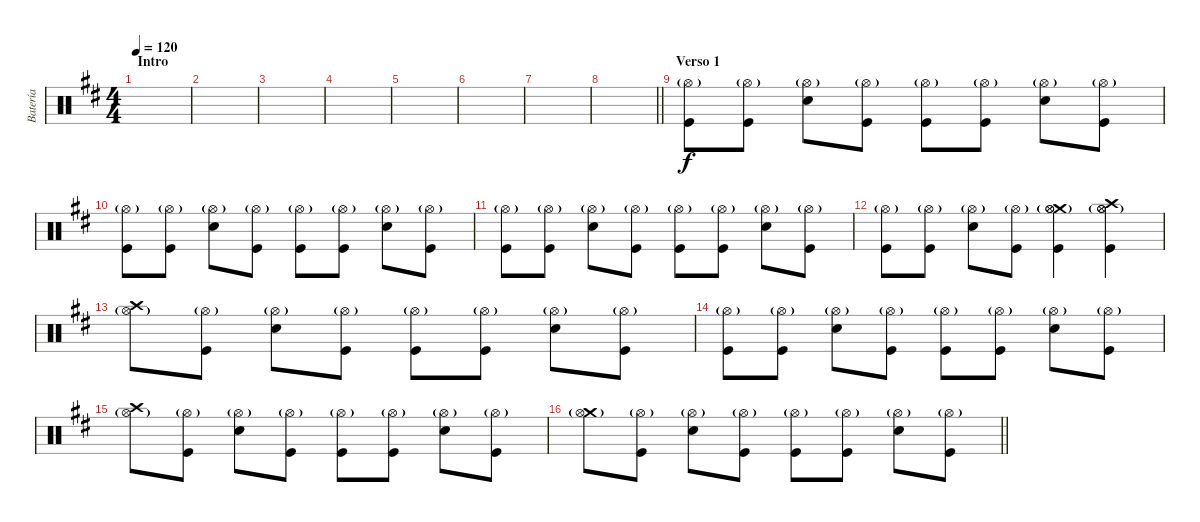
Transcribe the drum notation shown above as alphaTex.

\track ("Batería" "Batería") {instrument percussion}
\staff {score}
\articulation defaults
\ts (4 4)
\section ("" "Intro")
\tempo 120
\clef neutral
\ks d
|
|
|
|
|
|
|
\barLineRight lightlight
|
\section ("" "Verso 1")
("Kick (hit)" "Hi-Hat (open)"{g}).8 ("Kick (hit)" "Hi-Hat (open)"{g}).8 ("Electric Snare (hit)" "Hi-Hat (open)"{g}).8 ("Kick (hit)" "Hi-Hat (open)"{g}).8 ("Kick (hit)" "Hi-Hat (open)"{g}).8 ("Kick (hit)" "Hi-Hat (open)"{g}).8 ("Electric Snare (hit)" "Hi-Hat (open)"{g}).8 ("Kick (hit)" "Hi-Hat (open)"{g}).8 |
("Kick (hit)" "Hi-Hat (open)"{g}).8 ("Kick (hit)" "Hi-Hat (open)"{g}).8 ("Electric Snare (hit)" "Hi-Hat (open)"{g}).8 ("Kick (hit)" "Hi-Hat (open)"{g}).8 ("Kick (hit)" "Hi-Hat (open)"{g}).8 ("Kick (hit)" "Hi-Hat (open)"{g}).8 ("Electric Snare (hit)" "Hi-Hat (open)"{g}).8 ("Kick (hit)" "Hi-Hat (open)"{g}).8 |
("Kick (hit)" "Hi-Hat (open)"{g}).8 ("Kick (hit)" "Hi-Hat (open)"{g}).8 ("Electric Snare (hit)" "Hi-Hat (open)"{g}).8 ("Kick (hit)" "Hi-Hat (open)"{g}).8 ("Kick (hit)" "Hi-Hat (open)"{g}).8 ("Kick (hit)" "Hi-Hat (open)"{g}).8 ("Electric Snare (hit)" "Hi-Hat (open)"{g}).8 ("Kick (hit)" "Hi-Hat (open)"{g}).8 |
("Kick (hit)" "Hi-Hat (open)"{g}).8 ("Kick (hit)" "Hi-Hat (open)"{g}).8 ("Electric Snare (hit)" "Hi-Hat (open)"{g}).8 ("Kick (hit)" "Hi-Hat (open)"{g}).8 ("Crash medium (hit)" "Hi-Hat (open)" "Kick (hit)" "Hi-Hat (open)"{g}).4 ("Crash high (hit)" "Hi-Hat (open)" "Kick (hit)" "Hi-Hat (open)"{g}).4 |
("Crash high (hit)" "Hi-Hat (open)"{g}).8 ("Kick (hit)" "Hi-Hat (open)"{g}).8 ("Electric Snare (hit)" "Hi-Hat (open)"{g}).8 ("Kick (hit)" "Hi-Hat (open)"{g}).8 ("Kick (hit)" "Hi-Hat (open)"{g}).8 ("Kick (hit)" "Hi-Hat (open)"{g}).8 ("Electric Snare (hit)" "Hi-Hat (open)"{g}).8 ("Kick (hit)" "Hi-Hat (open)"{g}).8 |
("Kick (hit)" "Hi-Hat (open)"{g}).8 ("Kick (hit)" "Hi-Hat (open)"{g}).8 ("Electric Snare (hit)" "Hi-Hat (open)"{g}).8 ("Kick (hit)" "Hi-Hat (open)"{g}).8 ("Kick (hit)" "Hi-Hat (open)"{g}).8 ("Kick (hit)" "Hi-Hat (open)"{g}).8 ("Electric Snare (hit)" "Hi-Hat (open)"{g}).8 ("Kick (hit)" "Hi-Hat (open)"{g}).8 |
("Crash high (hit)" "Hi-Hat (open)"{g}).8 ("Kick (hit)" "Hi-Hat (open)"{g}).8 ("Electric Snare (hit)" "Hi-Hat (open)"{g}).8 ("Kick (hit)" "Hi-Hat (open)"{g}).8 ("Kick (hit)" "Hi-Hat (open)"{g}).8 ("Kick (hit)" "Hi-Hat (open)"{g}).8 ("Electric Snare (hit)" "Hi-Hat (open)"{g}).8 ("Kick (hit)" "Hi-Hat (open)"{g}).8 |
\barLineRight lightlight
("Crash medium (hit)" "Hi-Hat (open)"{g}).8 ("Kick (hit)" "Hi-Hat (open)"{g}).8 ("Electric Snare (hit)" "Hi-Hat (open)"{g}).8 ("Kick (hit)" "Hi-Hat (open)"{g}).8 ("Kick (hit)" "Hi-Hat (open)"{g}).8 ("Kick (hit)" "Hi-Hat (open)"{g}).8 ("Electric Snare (hit)" "Hi-Hat (open)"{g}).8 ("Kick (hit)" "Hi-Hat (open)"{g}).8
